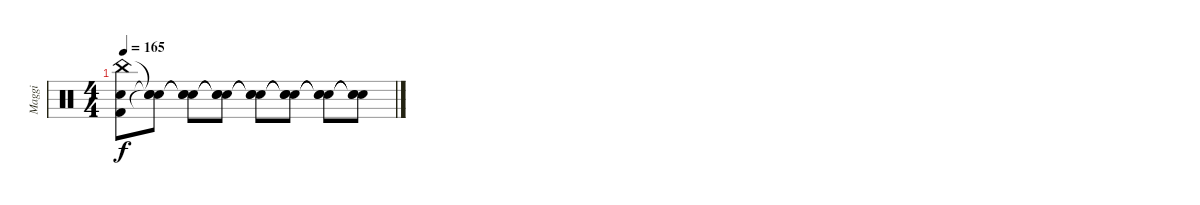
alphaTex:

\track ("Maggi" "Maggi") {instrument percussion}
\staff {score}
\articulation defaults
\ts (4 4)
\tempo 165
\clef neutral
\ks c
("China (hit)" "Snare (hit) 2" "Kick (hit) 2").8{dy f} ("Snare (hit)"{t} "Snare (hit)"{t} "Snare (hit)"{t}).8 ("Snare (hit)"{t} "Snare (hit)"{t} "Snare (hit)"{t}).8 ("Snare (hit)"{t} "Snare (hit)"{t} "Snare (hit)"{t}).8 ("Snare (hit)"{t} "Snare (hit)"{t} "Snare (hit)"{t}).8 ("Snare (hit)"{t} "Snare (hit)"{t} "Snare (hit)"{t}).8 ("Snare (hit)"{t} "Snare (hit)"{t} "Snare (hit)"{t}).8 ("Snare (hit)"{t} "Snare (hit)"{t} "Snare (hit)"{t}).8
